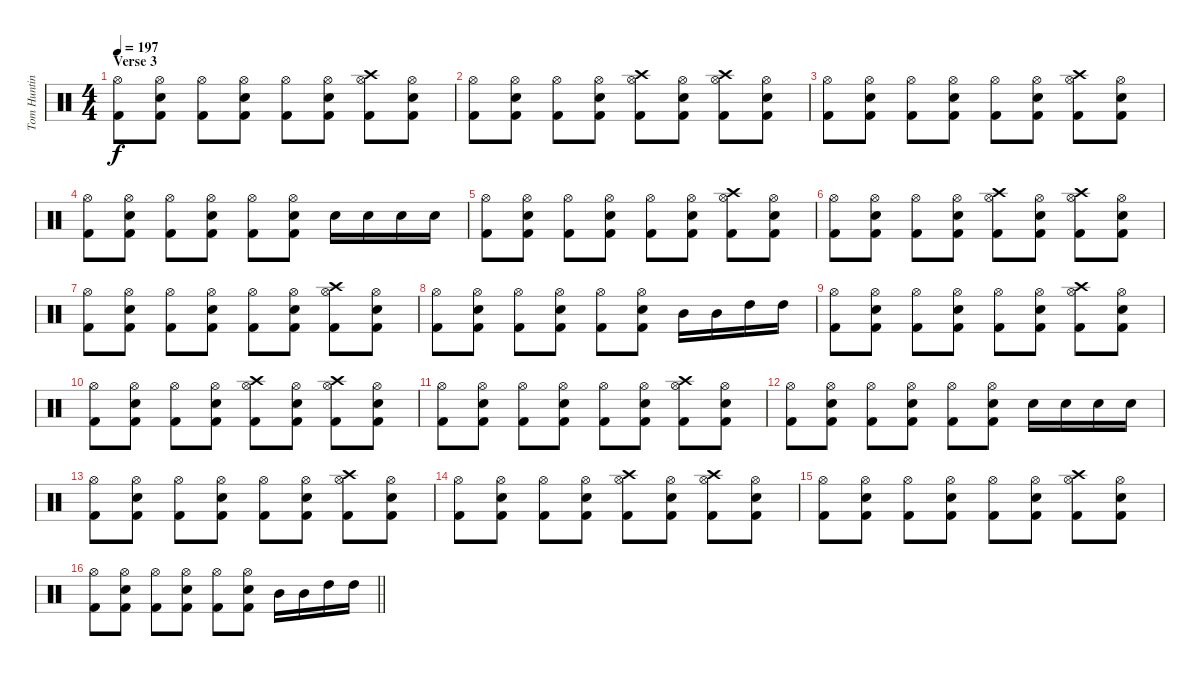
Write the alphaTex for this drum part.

\track ("Tom Hunting" "Tom Huntin") {instrument percussion}
\staff {score}
\articulation defaults
\ts (4 4)
\section ("" "Verse 3")
\tempo 197
\clef neutral
\ks c
("Hi-Hat (open)" "Kick (hit) 2").8{dy f} ("Hi-Hat (open)" "Snare (hit) 2" "Kick (hit) 2").8 ("Hi-Hat (open)" "Kick (hit) 2").8 ("Hi-Hat (open)" "Snare (hit) 2" "Kick (hit) 2").8 ("Hi-Hat (open)" "Kick (hit) 2").8 ("Hi-Hat (open)" "Snare (hit) 2" "Kick (hit) 2").8 ("Crash high (hit)" "Hi-Hat (open)" "Kick (hit) 2").8 ("Hi-Hat (open)" "Snare (hit) 2" "Kick (hit) 2").8 |
("Hi-Hat (open)" "Kick (hit) 2").8 ("Hi-Hat (open)" "Snare (hit) 2" "Kick (hit) 2").8 ("Hi-Hat (open)" "Kick (hit) 2").8 ("Hi-Hat (open)" "Snare (hit) 2" "Kick (hit) 2").8 ("Crash high (hit)" "Hi-Hat (open)" "Kick (hit) 2").8 ("Hi-Hat (open)" "Snare (hit) 2" "Kick (hit) 2").8 ("Crash high (hit)" "Hi-Hat (open)" "Kick (hit) 2").8 ("Hi-Hat (open)" "Snare (hit) 2" "Kick (hit) 2").8 |
("Hi-Hat (open)" "Kick (hit) 2").8 ("Hi-Hat (open)" "Snare (hit) 2" "Kick (hit) 2").8 ("Hi-Hat (open)" "Kick (hit) 2").8 ("Hi-Hat (open)" "Snare (hit) 2" "Kick (hit) 2").8 ("Hi-Hat (open)" "Kick (hit) 2").8 ("Hi-Hat (open)" "Snare (hit) 2" "Kick (hit) 2").8 ("Crash high (hit)" "Hi-Hat (open)" "Kick (hit) 2").8 ("Hi-Hat (open)" "Snare (hit) 2" "Kick (hit) 2").8 |
("Hi-Hat (open)" "Kick (hit) 2").8 ("Hi-Hat (open)" "Snare (hit) 2" "Kick (hit) 2").8 ("Hi-Hat (open)" "Kick (hit) 2").8 ("Hi-Hat (open)" "Snare (hit) 2" "Kick (hit) 2").8 ("Hi-Hat (open)" "Kick (hit) 2").8 ("Hi-Hat (open)" "Snare (hit) 2" "Kick (hit) 2").8 "Snare (hit) 2".16 "Snare (hit) 2".16 "Snare (hit) 2".16 "Snare (hit) 2".16 |
("Hi-Hat (open)" "Kick (hit) 2").8 ("Hi-Hat (open)" "Snare (hit) 2" "Kick (hit) 2").8 ("Hi-Hat (open)" "Kick (hit) 2").8 ("Hi-Hat (open)" "Snare (hit) 2" "Kick (hit) 2").8 ("Hi-Hat (open)" "Kick (hit) 2").8 ("Hi-Hat (open)" "Snare (hit) 2" "Kick (hit) 2").8 ("Crash high (hit)" "Hi-Hat (open)" "Kick (hit) 2").8 ("Hi-Hat (open)" "Snare (hit) 2" "Kick (hit) 2").8 |
("Hi-Hat (open)" "Kick (hit) 2").8 ("Hi-Hat (open)" "Snare (hit) 2" "Kick (hit) 2").8 ("Hi-Hat (open)" "Kick (hit) 2").8 ("Hi-Hat (open)" "Snare (hit) 2" "Kick (hit) 2").8 ("Crash high (hit)" "Hi-Hat (open)" "Kick (hit) 2").8 ("Hi-Hat (open)" "Snare (hit) 2" "Kick (hit) 2").8 ("Crash high (hit)" "Hi-Hat (open)" "Kick (hit) 2").8 ("Hi-Hat (open)" "Snare (hit) 2" "Kick (hit) 2").8 |
("Hi-Hat (open)" "Kick (hit) 2").8 ("Hi-Hat (open)" "Snare (hit) 2" "Kick (hit) 2").8 ("Hi-Hat (open)" "Kick (hit) 2").8 ("Hi-Hat (open)" "Snare (hit) 2" "Kick (hit) 2").8 ("Hi-Hat (open)" "Kick (hit) 2").8 ("Hi-Hat (open)" "Snare (hit) 2" "Kick (hit) 2").8 ("Crash high (hit)" "Hi-Hat (open)" "Kick (hit) 2").8 ("Hi-Hat (open)" "Snare (hit) 2" "Kick (hit) 2").8 |
("Hi-Hat (open)" "Kick (hit) 2").8 ("Hi-Hat (open)" "Snare (hit) 2" "Kick (hit) 2").8 ("Hi-Hat (open)" "Kick (hit) 2").8 ("Hi-Hat (open)" "Snare (hit) 2" "Kick (hit) 2").8 ("Hi-Hat (open)" "Kick (hit) 2").8 ("Hi-Hat (open)" "Snare (hit) 2" "Kick (hit) 2").8 "Mid Tom (hit)".16 "Mid Tom (hit)".16 "High Tom (hit)".16 "High Tom (hit)".16 |
("Hi-Hat (open)" "Kick (hit) 2").8 ("Hi-Hat (open)" "Snare (hit) 2" "Kick (hit) 2").8 ("Hi-Hat (open)" "Kick (hit) 2").8 ("Hi-Hat (open)" "Snare (hit) 2" "Kick (hit) 2").8 ("Hi-Hat (open)" "Kick (hit) 2").8 ("Hi-Hat (open)" "Snare (hit) 2" "Kick (hit) 2").8 ("Crash high (hit)" "Hi-Hat (open)" "Kick (hit) 2").8 ("Hi-Hat (open)" "Snare (hit) 2" "Kick (hit) 2").8 |
("Hi-Hat (open)" "Kick (hit) 2").8 ("Hi-Hat (open)" "Snare (hit) 2" "Kick (hit) 2").8 ("Hi-Hat (open)" "Kick (hit) 2").8 ("Hi-Hat (open)" "Snare (hit) 2" "Kick (hit) 2").8 ("Crash high (hit)" "Hi-Hat (open)" "Kick (hit) 2").8 ("Hi-Hat (open)" "Snare (hit) 2" "Kick (hit) 2").8 ("Crash high (hit)" "Hi-Hat (open)" "Kick (hit) 2").8 ("Hi-Hat (open)" "Snare (hit) 2" "Kick (hit) 2").8 |
("Hi-Hat (open)" "Kick (hit) 2").8 ("Hi-Hat (open)" "Snare (hit) 2" "Kick (hit) 2").8 ("Hi-Hat (open)" "Kick (hit) 2").8 ("Hi-Hat (open)" "Snare (hit) 2" "Kick (hit) 2").8 ("Hi-Hat (open)" "Kick (hit) 2").8 ("Hi-Hat (open)" "Snare (hit) 2" "Kick (hit) 2").8 ("Crash high (hit)" "Hi-Hat (open)" "Kick (hit) 2").8 ("Hi-Hat (open)" "Snare (hit) 2" "Kick (hit) 2").8 |
("Hi-Hat (open)" "Kick (hit) 2").8 ("Hi-Hat (open)" "Snare (hit) 2" "Kick (hit) 2").8 ("Hi-Hat (open)" "Kick (hit) 2").8 ("Hi-Hat (open)" "Snare (hit) 2" "Kick (hit) 2").8 ("Hi-Hat (open)" "Kick (hit) 2").8 ("Hi-Hat (open)" "Snare (hit) 2" "Kick (hit) 2").8 "Snare (hit) 2".16 "Snare (hit) 2".16 "Snare (hit) 2".16 "Snare (hit) 2".16 |
("Hi-Hat (open)" "Kick (hit) 2").8 ("Hi-Hat (open)" "Snare (hit) 2" "Kick (hit) 2").8 ("Hi-Hat (open)" "Kick (hit) 2").8 ("Hi-Hat (open)" "Snare (hit) 2" "Kick (hit) 2").8 ("Hi-Hat (open)" "Kick (hit) 2").8 ("Hi-Hat (open)" "Snare (hit) 2" "Kick (hit) 2").8 ("Crash high (hit)" "Hi-Hat (open)" "Kick (hit) 2").8 ("Hi-Hat (open)" "Snare (hit) 2" "Kick (hit) 2").8 |
("Hi-Hat (open)" "Kick (hit) 2").8 ("Hi-Hat (open)" "Snare (hit) 2" "Kick (hit) 2").8 ("Hi-Hat (open)" "Kick (hit) 2").8 ("Hi-Hat (open)" "Snare (hit) 2" "Kick (hit) 2").8 ("Crash high (hit)" "Hi-Hat (open)" "Kick (hit) 2").8 ("Hi-Hat (open)" "Snare (hit) 2" "Kick (hit) 2").8 ("Crash high (hit)" "Hi-Hat (open)" "Kick (hit) 2").8 ("Hi-Hat (open)" "Snare (hit) 2" "Kick (hit) 2").8 |
("Hi-Hat (open)" "Kick (hit) 2").8 ("Hi-Hat (open)" "Snare (hit) 2" "Kick (hit) 2").8 ("Hi-Hat (open)" "Kick (hit) 2").8 ("Hi-Hat (open)" "Snare (hit) 2" "Kick (hit) 2").8 ("Hi-Hat (open)" "Kick (hit) 2").8 ("Hi-Hat (open)" "Snare (hit) 2" "Kick (hit) 2").8 ("Crash high (hit)" "Hi-Hat (open)" "Kick (hit) 2").8 ("Hi-Hat (open)" "Snare (hit) 2" "Kick (hit) 2").8 |
\barLineRight lightlight
("Hi-Hat (open)" "Kick (hit) 2").8 ("Hi-Hat (open)" "Snare (hit) 2" "Kick (hit) 2").8 ("Hi-Hat (open)" "Kick (hit) 2").8 ("Hi-Hat (open)" "Snare (hit) 2" "Kick (hit) 2").8 ("Hi-Hat (open)" "Kick (hit) 2").8 ("Hi-Hat (open)" "Snare (hit) 2" "Kick (hit) 2").8 "Mid Tom (hit)".16 "Mid Tom (hit)".16 "High Tom (hit)".16 "High Tom (hit)".16
